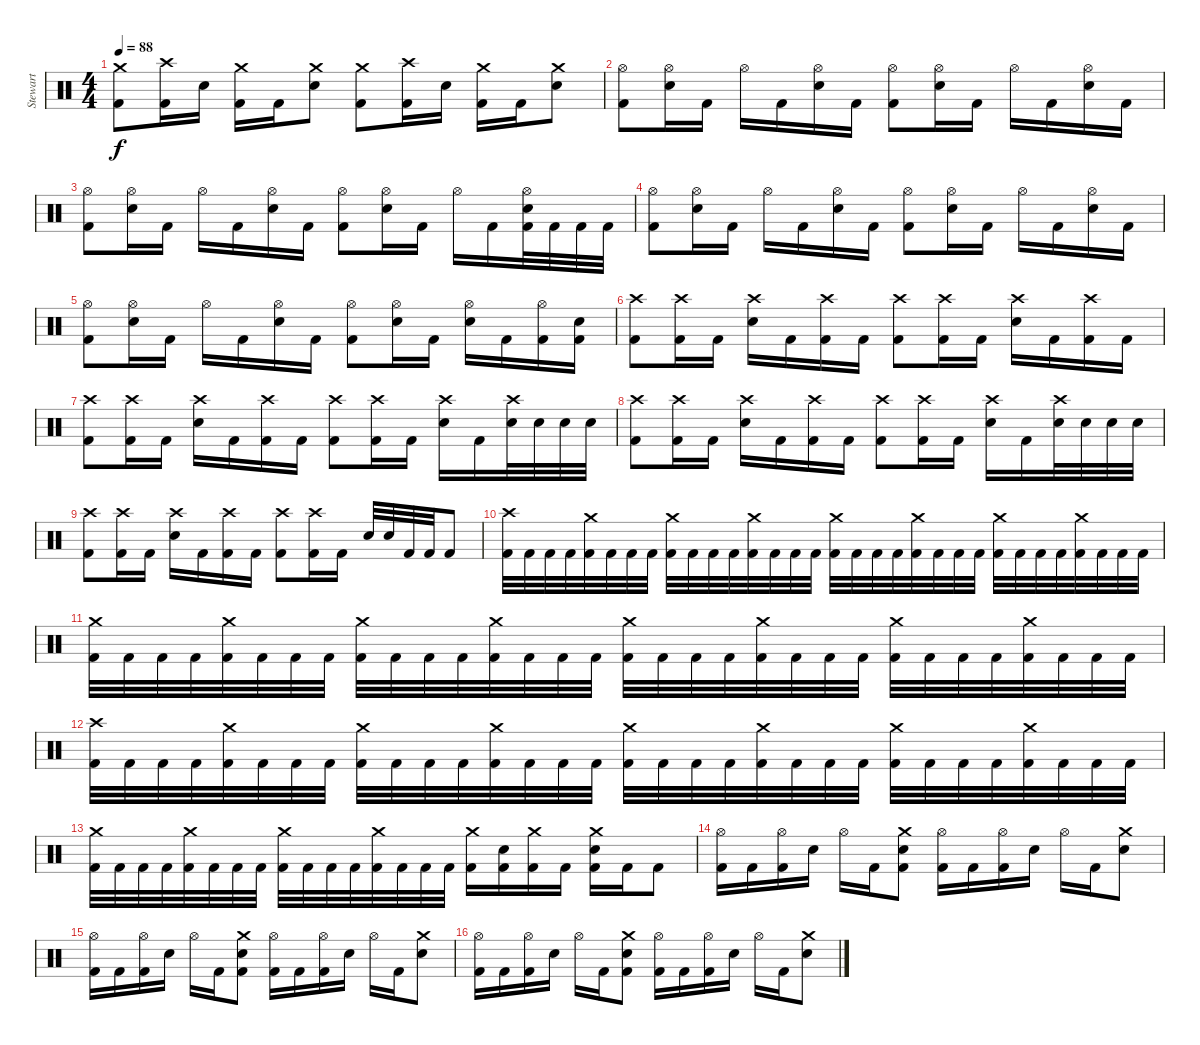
\track ("Stewart" "Stewart") {instrument percussion}
\staff {score}
\articulation defaults
\ts (4 4)
\tempo 88
\clef neutral
\ks c
("Crash medium (hit)" "Kick (hit) 2").8{dy f} ("Crash high (hit)" "Kick (hit) 2").16 "Electric Snare (hit)".16 ("Crash medium (hit)" "Kick (hit) 2").16 "Kick (hit) 2".16 ("Crash medium (hit)" "Electric Snare (hit)").8 ("Crash medium (hit)" "Kick (hit) 2").8 ("Crash high (hit)" "Kick (hit) 2").16 "Electric Snare (hit)".16 ("Crash medium (hit)" "Kick (hit) 2").16 "Kick (hit) 2".16 ("Crash medium (hit)" "Electric Snare (hit)").8 |
("Hi-Hat (open)" "Kick (hit) 2").8 ("Hi-Hat (open)" "Electric Snare (hit)").16 "Kick (hit) 2".16 "Hi-Hat (open)".16 "Kick (hit) 2".16 ("Hi-Hat (open)" "Electric Snare (hit)").16 "Kick (hit) 2".16 ("Hi-Hat (open)" "Kick (hit) 2").8 ("Hi-Hat (open)" "Electric Snare (hit)").16 "Kick (hit) 2".16 "Hi-Hat (open)".16 "Kick (hit) 2".16 ("Hi-Hat (open)" "Electric Snare (hit)").16 "Kick (hit) 2".16 |
("Hi-Hat (open)" "Kick (hit) 2").8 ("Hi-Hat (open)" "Electric Snare (hit)").16 "Kick (hit) 2".16 "Hi-Hat (open)".16 "Kick (hit) 2".16 ("Hi-Hat (open)" "Electric Snare (hit)").16 "Kick (hit) 2".16 ("Hi-Hat (open)" "Kick (hit) 2").8 ("Hi-Hat (open)" "Electric Snare (hit)").16 "Kick (hit) 2".16 "Hi-Hat (open)".16 "Kick (hit) 2".16 ("Hi-Hat (open)" "Electric Snare (hit)" "Kick (hit) 2").32 "Kick (hit) 2".32 "Kick (hit) 2".32 "Kick (hit) 2".32 |
("Hi-Hat (open)" "Kick (hit) 2").8 ("Hi-Hat (open)" "Electric Snare (hit)").16 "Kick (hit) 2".16 "Hi-Hat (open)".16 "Kick (hit) 2".16 ("Hi-Hat (open)" "Electric Snare (hit)").16 "Kick (hit) 2".16 ("Hi-Hat (open)" "Kick (hit) 2").8 ("Hi-Hat (open)" "Electric Snare (hit)").16 "Kick (hit) 2".16 "Hi-Hat (open)".16 "Kick (hit) 2".16 ("Hi-Hat (open)" "Electric Snare (hit)").16 "Kick (hit) 2".16 |
("Hi-Hat (open)" "Kick (hit) 2").8 ("Hi-Hat (open)" "Electric Snare (hit)").16 "Kick (hit) 2".16 "Hi-Hat (open)".16 "Kick (hit) 2".16 ("Hi-Hat (open)" "Electric Snare (hit)").16 "Kick (hit) 2".16 ("Hi-Hat (open)" "Kick (hit) 2").8 ("Hi-Hat (open)" "Electric Snare (hit)").16 "Kick (hit) 2".16 ("Hi-Hat (open)" "Electric Snare (hit)").16 "Kick (hit) 2".16 ("Hi-Hat (open)" "Kick (hit) 2").16 ("Electric Snare (hit)" "Kick (hit) 2").16 |
("Crash high (hit)" "Kick (hit) 2").8 ("Crash high (hit)" "Kick (hit) 2").16 "Kick (hit) 2".16 ("Crash high (hit)" "Electric Snare (hit)").16 "Kick (hit) 2".16 ("Crash high (hit)" "Kick (hit) 2").16 "Kick (hit) 2".16 ("Crash high (hit)" "Kick (hit) 2").8 ("Crash high (hit)" "Kick (hit) 2").16 "Kick (hit) 2".16 ("Crash high (hit)" "Electric Snare (hit)").16 "Kick (hit) 2".16 ("Crash high (hit)" "Kick (hit) 2").16 "Kick (hit) 2".16 |
("Crash high (hit)" "Kick (hit) 2").8 ("Crash high (hit)" "Kick (hit) 2").16 "Kick (hit) 2".16 ("Crash high (hit)" "Electric Snare (hit)").16 "Kick (hit) 2".16 ("Crash high (hit)" "Kick (hit) 2").16 "Kick (hit) 2".16 ("Crash high (hit)" "Kick (hit) 2").8 ("Crash high (hit)" "Kick (hit) 2").16 "Kick (hit) 2".16 ("Crash high (hit)" "Electric Snare (hit)").16 "Kick (hit) 2".16 ("Crash high (hit)" "Electric Snare (hit)").32 "Electric Snare (hit)".32 "Electric Snare (hit)".32 "Electric Snare (hit)".32 |
("Crash high (hit)" "Kick (hit) 2").8 ("Crash high (hit)" "Kick (hit) 2").16 "Kick (hit) 2".16 ("Crash high (hit)" "Electric Snare (hit)").16 "Kick (hit) 2".16 ("Crash high (hit)" "Kick (hit) 2").16 "Kick (hit) 2".16 ("Crash high (hit)" "Kick (hit) 2").8 ("Crash high (hit)" "Kick (hit) 2").16 "Kick (hit) 2".16 ("Crash high (hit)" "Electric Snare (hit)").16 "Kick (hit) 2".16 ("Crash high (hit)" "Electric Snare (hit)").32 "Electric Snare (hit)".32 "Electric Snare (hit)".32 "Electric Snare (hit)".32 |
("Crash high (hit)" "Kick (hit) 2").8 ("Crash high (hit)" "Kick (hit) 2").16 "Kick (hit) 2".16 ("Crash high (hit)" "Electric Snare (hit)").16 "Kick (hit) 2".16 ("Crash high (hit)" "Kick (hit) 2").16 "Kick (hit) 2".16 ("Crash high (hit)" "Kick (hit) 2").8 ("Crash high (hit)" "Kick (hit) 2").16 "Kick (hit) 2".16 "Electric Snare (hit)".32 "Electric Snare (hit)".32 "Kick (hit) 2".32 "Kick (hit) 2".32 "Kick (hit) 2".8 |
("Crash high (hit)" "Kick (hit) 2").32 "Kick (hit) 2".32 "Kick (hit) 2".32 "Kick (hit) 2".32 ("Crash medium (hit)" "Kick (hit) 2").32 "Kick (hit) 2".32 "Kick (hit) 2".32 "Kick (hit) 2".32 ("Crash medium (hit)" "Kick (hit) 2").32 "Kick (hit) 2".32 "Kick (hit) 2".32 "Kick (hit) 2".32 ("Crash medium (hit)" "Kick (hit) 2").32 "Kick (hit) 2".32 "Kick (hit) 2".32 "Kick (hit) 2".32 ("Crash medium (hit)" "Kick (hit) 2").32 "Kick (hit) 2".32 "Kick (hit) 2".32 "Kick (hit) 2".32 ("Crash medium (hit)" "Kick (hit) 2").32 "Kick (hit) 2".32 "Kick (hit) 2".32 "Kick (hit) 2".32 ("Crash medium (hit)" "Kick (hit) 2").32 "Kick (hit) 2".32 "Kick (hit) 2".32 "Kick (hit) 2".32 ("Crash medium (hit)" "Kick (hit) 2").32 "Kick (hit) 2".32 "Kick (hit) 2".32 "Kick (hit) 2".32 |
("Crash medium (hit)" "Kick (hit) 2").32 "Kick (hit) 2".32 "Kick (hit) 2".32 "Kick (hit) 2".32 ("Crash medium (hit)" "Kick (hit) 2").32 "Kick (hit) 2".32 "Kick (hit) 2".32 "Kick (hit) 2".32 ("Crash medium (hit)" "Kick (hit) 2").32 "Kick (hit) 2".32 "Kick (hit) 2".32 "Kick (hit) 2".32 ("Crash medium (hit)" "Kick (hit) 2").32 "Kick (hit) 2".32 "Kick (hit) 2".32 "Kick (hit) 2".32 ("Crash medium (hit)" "Kick (hit) 2").32 "Kick (hit) 2".32 "Kick (hit) 2".32 "Kick (hit) 2".32 ("Crash medium (hit)" "Kick (hit) 2").32 "Kick (hit) 2".32 "Kick (hit) 2".32 "Kick (hit) 2".32 ("Crash medium (hit)" "Kick (hit) 2").32 "Kick (hit) 2".32 "Kick (hit) 2".32 "Kick (hit) 2".32 ("Crash medium (hit)" "Kick (hit) 2").32 "Kick (hit) 2".32 "Kick (hit) 2".32 "Kick (hit) 2".32 |
("Crash high (hit)" "Kick (hit) 2").32 "Kick (hit) 2".32 "Kick (hit) 2".32 "Kick (hit) 2".32 ("Crash medium (hit)" "Kick (hit) 2").32 "Kick (hit) 2".32 "Kick (hit) 2".32 "Kick (hit) 2".32 ("Crash medium (hit)" "Kick (hit) 2").32 "Kick (hit) 2".32 "Kick (hit) 2".32 "Kick (hit) 2".32 ("Crash medium (hit)" "Kick (hit) 2").32 "Kick (hit) 2".32 "Kick (hit) 2".32 "Kick (hit) 2".32 ("Crash medium (hit)" "Kick (hit) 2").32 "Kick (hit) 2".32 "Kick (hit) 2".32 "Kick (hit) 2".32 ("Crash medium (hit)" "Kick (hit) 2").32 "Kick (hit) 2".32 "Kick (hit) 2".32 "Kick (hit) 2".32 ("Crash medium (hit)" "Kick (hit) 2").32 "Kick (hit) 2".32 "Kick (hit) 2".32 "Kick (hit) 2".32 ("Crash medium (hit)" "Kick (hit) 2").32 "Kick (hit) 2".32 "Kick (hit) 2".32 "Kick (hit) 2".32 |
("Crash medium (hit)" "Kick (hit) 2").32 "Kick (hit) 2".32 "Kick (hit) 2".32 "Kick (hit) 2".32 ("Crash medium (hit)" "Kick (hit) 2").32 "Kick (hit) 2".32 "Kick (hit) 2".32 "Kick (hit) 2".32 ("Crash medium (hit)" "Kick (hit) 2").32 "Kick (hit) 2".32 "Kick (hit) 2".32 "Kick (hit) 2".32 ("Crash medium (hit)" "Kick (hit) 2").32 "Kick (hit) 2".32 "Kick (hit) 2".32 "Kick (hit) 2".32 ("Crash medium (hit)" "Kick (hit) 2").16 ("Electric Snare (hit)" "Kick (hit) 2").16 ("Crash medium (hit)" "Kick (hit) 2").16 "Kick (hit) 2".16 ("Crash medium (hit)" "Electric Snare (hit)" "Kick (hit) 2").16 "Kick (hit) 2".16 "Kick (hit) 2".8 |
("Hi-Hat (open)" "Kick (hit) 2").16 "Kick (hit) 2".16 ("Hi-Hat (open)" "Kick (hit) 2").16 "Electric Snare (hit)".16 "Hi-Hat (open)".16 "Kick (hit) 2".16 ("Crash medium (hit)" "Electric Snare (hit)" "Kick (hit) 2").8 ("Hi-Hat (open)" "Kick (hit) 2").16 "Kick (hit) 2".16 ("Hi-Hat (open)" "Kick (hit) 2").16 "Electric Snare (hit)".16 "Hi-Hat (open)".16 "Kick (hit) 2".16 ("Crash medium (hit)" "Electric Snare (hit)").8 |
("Hi-Hat (open)" "Kick (hit) 2").16 "Kick (hit) 2".16 ("Hi-Hat (open)" "Kick (hit) 2").16 "Electric Snare (hit)".16 "Hi-Hat (open)".16 "Kick (hit) 2".16 ("Crash medium (hit)" "Electric Snare (hit)" "Kick (hit) 2").8 ("Hi-Hat (open)" "Kick (hit) 2").16 "Kick (hit) 2".16 ("Hi-Hat (open)" "Kick (hit) 2").16 "Electric Snare (hit)".16 "Hi-Hat (open)".16 "Kick (hit) 2".16 ("Crash medium (hit)" "Electric Snare (hit)").8 |
("Hi-Hat (open)" "Kick (hit) 2").16 "Kick (hit) 2".16 ("Hi-Hat (open)" "Kick (hit) 2").16 "Electric Snare (hit)".16 "Hi-Hat (open)".16 "Kick (hit) 2".16 ("Crash medium (hit)" "Electric Snare (hit)" "Kick (hit) 2").8 ("Hi-Hat (open)" "Kick (hit) 2").16 "Kick (hit) 2".16 ("Hi-Hat (open)" "Kick (hit) 2").16 "Electric Snare (hit)".16 "Hi-Hat (open)".16 "Kick (hit) 2".16 ("Crash medium (hit)" "Electric Snare (hit)").8
